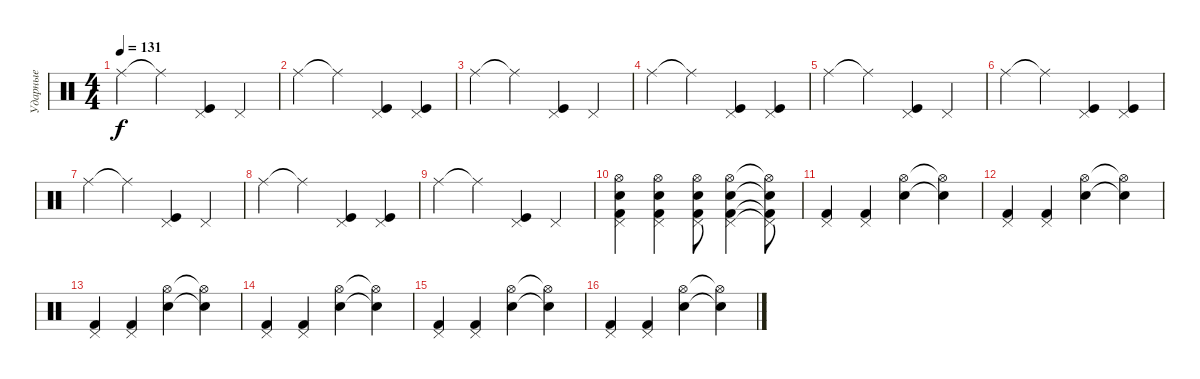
\track ("Ударные" "Ударные") {instrument percussion}
\staff {score}
\articulation defaults
\ts (4 4)
\tempo 131
\clef neutral
\ks c "Ride (middle)".4{dy f} "Ride (middle)"{t}.4
("Pedal Hi-Hat (hit)" "Kick (hit)").4 "Pedal Hi-Hat (hit)".4 |
"Ride (middle)".4 "Ride (middle)"{t}.4 ("Pedal Hi-Hat (hit)" "Kick (hit)").4 ("Pedal Hi-Hat (hit)" "Kick (hit)").4 |
"Ride (middle)".4 "Ride (middle)"{t}.4 ("Pedal Hi-Hat (hit)" "Kick (hit)").4 "Pedal Hi-Hat (hit)".4 |
"Ride (middle)".4 "Ride (middle)"{t}.4 ("Pedal Hi-Hat (hit)" "Kick (hit)").4 ("Pedal Hi-Hat (hit)" "Kick (hit)").4 |
"Ride (middle)".4 "Ride (middle)"{t}.4 ("Pedal Hi-Hat (hit)" "Kick (hit)").4 "Pedal Hi-Hat (hit)".4 |
"Ride (middle)".4 "Ride (middle)"{t}.4 ("Pedal Hi-Hat (hit)" "Kick (hit)").4 ("Pedal Hi-Hat (hit)" "Kick (hit)").4 |
"Ride (middle)".4 "Ride (middle)"{t}.4 ("Pedal Hi-Hat (hit)" "Kick (hit)").4 "Pedal Hi-Hat (hit)".4 |
"Ride (middle)".4 "Ride (middle)"{t}.4 ("Pedal Hi-Hat (hit)" "Kick (hit)").4 ("Pedal Hi-Hat (hit)" "Kick (hit)").4 |
"Ride (middle)".4 "Ride (middle)"{t}.4 ("Pedal Hi-Hat (hit)" "Kick (hit)").4 "Pedal Hi-Hat (hit)".4 |
("Kick (hit) 2" "Snare (hit) 2" "Pedal Hi-Hat (hit)" "Hi-Hat (open)").4 ("Kick (hit) 2" "Snare (hit) 2" "Pedal Hi-Hat (hit)" "Hi-Hat (open)").4 ("Kick (hit) 2" "Snare (hit) 2" "Pedal Hi-Hat (hit)" "Hi-Hat (open)").8 ("Kick (hit) 2" "Snare (hit) 2" "Pedal Hi-Hat (hit)" "Hi-Hat (open)").4 ("Kick (hit) 2"{t} "Snare (hit) 2"{t} "Pedal Hi-Hat (hit)"{t} "Hi-Hat (open)"{t}).8 |
("Kick (hit) 2" "Pedal Hi-Hat (hit)").4 ("Kick (hit) 2" "Pedal Hi-Hat (hit)").4 ("Hi-Hat (open)" "Snare (hit) 2").4 ("Hi-Hat (open)"{t} "Snare (hit) 2"{t}).4 |
("Kick (hit) 2" "Pedal Hi-Hat (hit)").4 ("Kick (hit) 2" "Pedal Hi-Hat (hit)").4 ("Hi-Hat (open)" "Snare (hit) 2").4 ("Hi-Hat (open)"{t} "Snare (hit) 2"{t}).4 |
("Kick (hit) 2" "Pedal Hi-Hat (hit)").4 ("Kick (hit) 2" "Pedal Hi-Hat (hit)").4 ("Hi-Hat (open)" "Snare (hit) 2").4 ("Hi-Hat (open)"{t} "Snare (hit) 2"{t}).4 |
("Kick (hit) 2" "Pedal Hi-Hat (hit)").4 ("Kick (hit) 2" "Pedal Hi-Hat (hit)").4 ("Hi-Hat (open)" "Snare (hit) 2").4 ("Hi-Hat (open)"{t} "Snare (hit) 2"{t}).4 |
("Kick (hit) 2" "Pedal Hi-Hat (hit)").4 ("Kick (hit) 2" "Pedal Hi-Hat (hit)").4 ("Hi-Hat (open)" "Snare (hit) 2").4 ("Hi-Hat (open)"{t} "Snare (hit) 2"{t}).4 |
("Kick (hit) 2" "Pedal Hi-Hat (hit)").4 ("Kick (hit) 2" "Pedal Hi-Hat (hit)").4 ("Hi-Hat (open)" "Snare (hit) 2").4 ("Hi-Hat (open)"{t} "Snare (hit) 2"{t}).4
